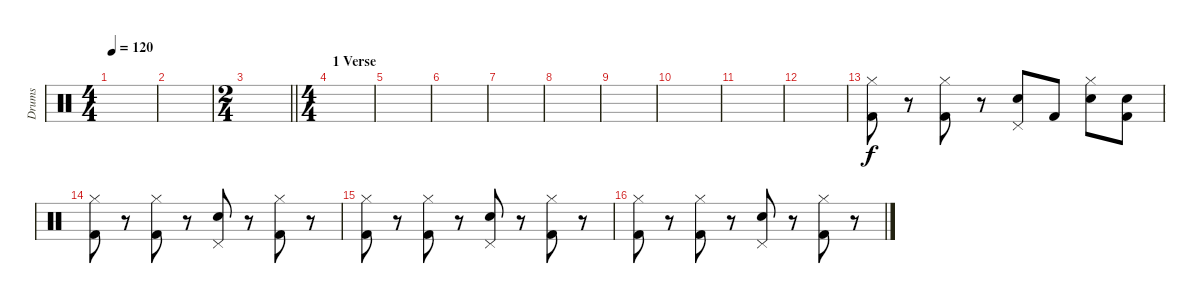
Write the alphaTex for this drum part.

\track ("Drums" "Drums") {instrument percussion}
\staff {score}
\articulation defaults
\ts (4 4)
\tempo 120
\clef neutral
\ks c
|
|
\ts (2 4)
\barLineRight lightlight
|
\ts (4 4)
\section ("" "1 Verse")
|
|
|
|
|
|
|
|
|
("Hi-Hat (closed)" "Kick (hit) 2").8 r.8 ("Hi-Hat (closed)" "Kick (hit) 2").8 r.8 ("Pedal Hi-Hat (hit)" "Electric Snare (hit)").8 "Kick (hit) 2".8 ("Hi-Hat (closed)" "Electric Snare (hit)").8 ("Electric Snare (hit)" "Kick (hit) 2").8 |
("Hi-Hat (closed)" "Kick (hit) 2").8 r.8 ("Hi-Hat (closed)" "Kick (hit) 2").8 r.8 ("Pedal Hi-Hat (hit)" "Electric Snare (hit)").8 r.8 ("Hi-Hat (closed)" "Kick (hit) 2").8 r.8 |
("Hi-Hat (closed)" "Kick (hit) 2").8 r.8 ("Hi-Hat (closed)" "Kick (hit) 2").8 r.8 ("Pedal Hi-Hat (hit)" "Electric Snare (hit)").8 r.8 ("Hi-Hat (closed)" "Kick (hit) 2").8 r.8 |
("Hi-Hat (closed)" "Kick (hit) 2").8 r.8 ("Hi-Hat (closed)" "Kick (hit) 2").8 r.8 ("Pedal Hi-Hat (hit)" "Electric Snare (hit)").8 r.8 ("Hi-Hat (closed)" "Kick (hit) 2").8 r.8
